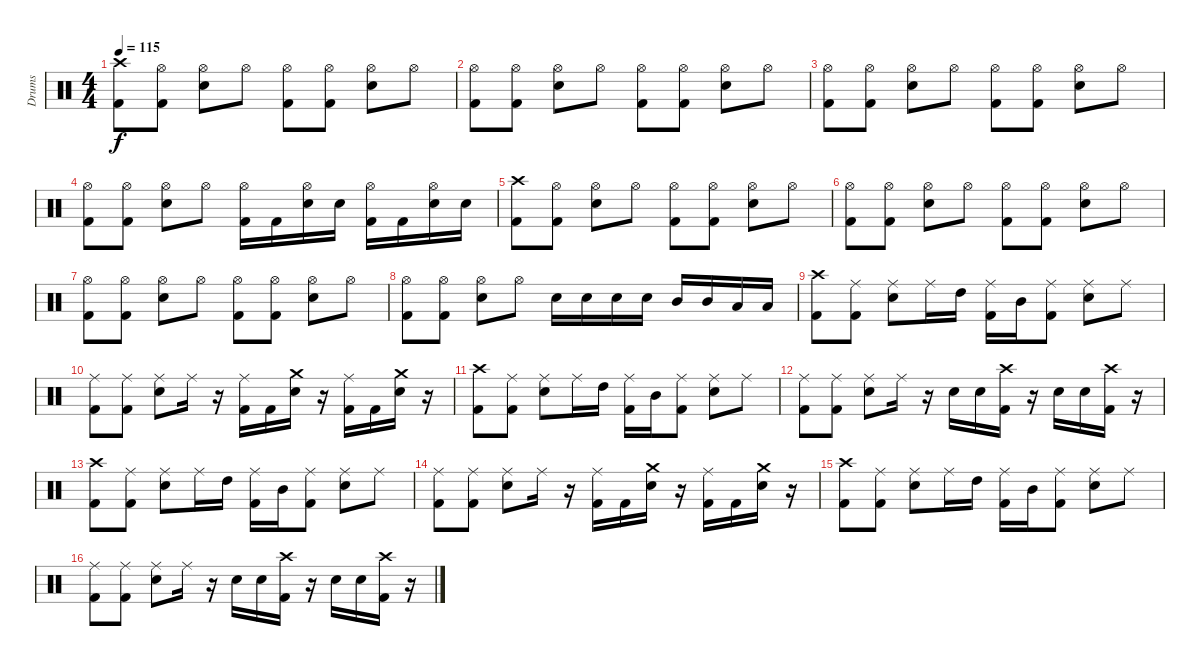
\track ("Drums" "Drums") {instrument percussion}
\staff {score}
\articulation defaults
\ts (4 4)
\tempo 115
\clef neutral
\ks c
("Crash high (hit)" "Kick (hit) 2").8{dy f} ("Hi-Hat (open)" "Kick (hit) 2").8 ("Hi-Hat (open)" "Snare (hit) 2").8 "Hi-Hat (open)".8 ("Hi-Hat (open)" "Kick (hit) 2").8 ("Hi-Hat (open)" "Kick (hit) 2").8 ("Hi-Hat (open)" "Snare (hit) 2").8 "Hi-Hat (open)".8 |
("Hi-Hat (open)" "Kick (hit) 2").8 ("Hi-Hat (open)" "Kick (hit) 2").8 ("Hi-Hat (open)" "Snare (hit) 2").8 "Hi-Hat (open)".8 ("Hi-Hat (open)" "Kick (hit) 2").8 ("Hi-Hat (open)" "Kick (hit) 2").8 ("Hi-Hat (open)" "Snare (hit) 2").8 "Hi-Hat (open)".8 |
("Hi-Hat (open)" "Kick (hit) 2").8 ("Hi-Hat (open)" "Kick (hit) 2").8 ("Hi-Hat (open)" "Snare (hit) 2").8 "Hi-Hat (open)".8 ("Hi-Hat (open)" "Kick (hit) 2").8 ("Hi-Hat (open)" "Kick (hit) 2").8 ("Hi-Hat (open)" "Snare (hit) 2").8 "Hi-Hat (open)".8 |
("Hi-Hat (open)" "Kick (hit) 2").8 ("Hi-Hat (open)" "Kick (hit) 2").8 ("Hi-Hat (open)" "Snare (hit) 2").8 "Hi-Hat (open)".8 ("Hi-Hat (open)" "Kick (hit) 2").16 "Kick (hit) 2".16 ("Hi-Hat (open)" "Snare (hit) 2").16 "Snare (hit) 2".16 ("Hi-Hat (open)" "Kick (hit) 2").16 "Kick (hit) 2".16 ("Hi-Hat (open)" "Snare (hit) 2").16 "Snare (hit) 2".16 |
("Crash high (hit)" "Kick (hit) 2").8 ("Hi-Hat (open)" "Kick (hit) 2").8 ("Hi-Hat (open)" "Snare (hit) 2").8 "Hi-Hat (open)".8 ("Hi-Hat (open)" "Kick (hit) 2").8 ("Hi-Hat (open)" "Kick (hit) 2").8 ("Hi-Hat (open)" "Snare (hit) 2").8 "Hi-Hat (open)".8 |
("Hi-Hat (open)" "Kick (hit) 2").8 ("Hi-Hat (open)" "Kick (hit) 2").8 ("Hi-Hat (open)" "Snare (hit) 2").8 "Hi-Hat (open)".8 ("Hi-Hat (open)" "Kick (hit) 2").8 ("Hi-Hat (open)" "Kick (hit) 2").8 ("Hi-Hat (open)" "Snare (hit) 2").8 "Hi-Hat (open)".8 |
("Hi-Hat (open)" "Kick (hit) 2").8 ("Hi-Hat (open)" "Kick (hit) 2").8 ("Hi-Hat (open)" "Snare (hit) 2").8 "Hi-Hat (open)".8 ("Hi-Hat (open)" "Kick (hit) 2").8 ("Hi-Hat (open)" "Kick (hit) 2").8 ("Hi-Hat (open)" "Snare (hit) 2").8 "Hi-Hat (open)".8 |
("Hi-Hat (open)" "Kick (hit) 2").8 ("Hi-Hat (open)" "Kick (hit) 2").8 ("Hi-Hat (open)" "Snare (hit) 2").8 "Hi-Hat (open)".8 "Snare (hit) 2".16 "Snare (hit) 2".16 "Snare (hit) 2".16 "Snare (hit) 2".16 "Mid Tom (hit)".16 "Mid Tom (hit)".16 "Low Tom (hit)".16 "Low Tom (hit)".16 |
("Crash high (hit)" "Kick (hit) 2").8 ("Ride (middle)" "Kick (hit) 2").8 ("Ride (middle)" "Snare (hit) 2").8 "Ride (middle)".16 "High Tom (hit)".16 ("Ride (middle)" "Kick (hit) 2").16 "Mid Tom (hit)".16 ("Ride (middle)" "Kick (hit) 2").8 ("Ride (middle)" "Snare (hit) 2").8 "Ride (middle)".8 |
("Ride (middle)" "Kick (hit) 2").8 ("Ride (middle)" "Kick (hit) 2").8 ("Ride (middle)" "Snare (hit) 2").8 "Ride (middle)".16 r.16 ("Ride (middle)" "Kick (hit) 2").16 "Kick (hit) 2".16 ("Crash medium (hit)" "Snare (hit) 2").16 r.16 ("Ride (middle)" "Kick (hit) 2").16 "Kick (hit) 2".16 ("Crash medium (hit)" "Snare (hit) 2").16 r.16 |
("Crash high (hit)" "Kick (hit) 2").8 ("Ride (middle)" "Kick (hit) 2").8 ("Ride (middle)" "Snare (hit) 2").8 "Ride (middle)".16 "High Tom (hit)".16 ("Ride (middle)" "Kick (hit) 2").16 "Mid Tom (hit)".16 ("Ride (middle)" "Kick (hit) 2").8 ("Ride (middle)" "Snare (hit) 2").8 "Ride (middle)".8 |
("Ride (middle)" "Kick (hit) 2").8 ("Ride (middle)" "Kick (hit) 2").8 ("Ride (middle)" "Snare (hit) 2").8 "Ride (middle)".16 r.16 "Snare (hit) 2".16 "Snare (hit) 2".16 ("Crash high (hit)" "Kick (hit) 2").16 r.16 "Snare (hit) 2".16 "Snare (hit) 2".16 ("Crash high (hit)" "Kick (hit) 2").16 r.16 |
("Crash high (hit)" "Kick (hit) 2").8 ("Ride (middle)" "Kick (hit) 2").8 ("Ride (middle)" "Snare (hit) 2").8 "Ride (middle)".16 "High Tom (hit)".16 ("Ride (middle)" "Kick (hit) 2").16 "Mid Tom (hit)".16 ("Ride (middle)" "Kick (hit) 2").8 ("Ride (middle)" "Snare (hit) 2").8 "Ride (middle)".8 |
("Ride (middle)" "Kick (hit) 2").8 ("Ride (middle)" "Kick (hit) 2").8 ("Ride (middle)" "Snare (hit) 2").8 "Ride (middle)".16 r.16 ("Ride (middle)" "Kick (hit) 2").16 "Kick (hit) 2".16 ("Crash medium (hit)" "Snare (hit) 2").16 r.16 ("Ride (middle)" "Kick (hit) 2").16 "Kick (hit) 2".16 ("Crash medium (hit)" "Snare (hit) 2").16 r.16 |
("Crash high (hit)" "Kick (hit) 2").8 ("Ride (middle)" "Kick (hit) 2").8 ("Ride (middle)" "Snare (hit) 2").8 "Ride (middle)".16 "High Tom (hit)".16 ("Ride (middle)" "Kick (hit) 2").16 "Mid Tom (hit)".16 ("Ride (middle)" "Kick (hit) 2").8 ("Ride (middle)" "Snare (hit) 2").8 "Ride (middle)".8 |
("Ride (middle)" "Kick (hit) 2").8 ("Ride (middle)" "Kick (hit) 2").8 ("Ride (middle)" "Snare (hit) 2").8 "Ride (middle)".16 r.16 "Snare (hit) 2".16 "Snare (hit) 2".16 ("Crash high (hit)" "Kick (hit) 2").16 r.16 "Snare (hit) 2".16 "Snare (hit) 2".16 ("Crash high (hit)" "Kick (hit) 2").16 r.16
